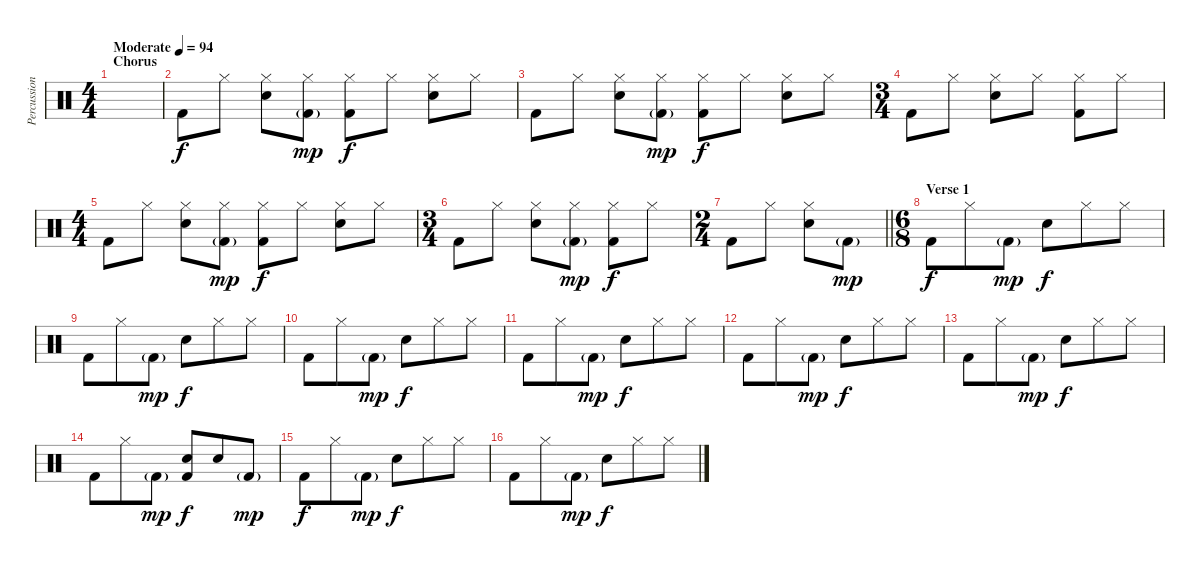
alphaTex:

\track ("Percussion" "Percussion") {instrument percussion}
\staff {score}
\articulation defaults
\ts (4 4)
\section ("" "Chorus")
\tempo (94 "Moderate")
\clef neutral
\ks c
|
"Kick (hit) 2".8 "Hi-Hat (closed)".8 ("Hi-Hat (closed)" "Snare (hit) 2").8 ("Hi-Hat (closed)" "Kick (hit) 2"{g}).8{dy mp} ("Hi-Hat (closed)" "Kick (hit) 2").8{dy f} "Hi-Hat (closed)".8 ("Hi-Hat (closed)" "Snare (hit) 2").8 "Hi-Hat (closed)".8 |
"Kick (hit) 2".8 "Hi-Hat (closed)".8 ("Hi-Hat (closed)" "Snare (hit) 2").8 ("Hi-Hat (closed)" "Kick (hit) 2"{g}).8{dy mp} ("Hi-Hat (closed)" "Kick (hit) 2").8{dy f} "Hi-Hat (closed)".8 ("Hi-Hat (closed)" "Snare (hit) 2").8 "Hi-Hat (closed)".8 |
\ts (3 4)
"Kick (hit) 2".8 "Hi-Hat (closed)".8 ("Hi-Hat (closed)" "Snare (hit) 2").8 "Hi-Hat (closed)".8 ("Hi-Hat (closed)" "Kick (hit) 2").8 "Hi-Hat (closed)".8 |
\ts (4 4)
"Kick (hit) 2".8 "Hi-Hat (closed)".8 ("Hi-Hat (closed)" "Snare (hit) 2").8 ("Hi-Hat (closed)" "Kick (hit) 2"{g}).8{dy mp} ("Hi-Hat (closed)" "Kick (hit) 2").8{dy f} "Hi-Hat (closed)".8 ("Hi-Hat (closed)" "Snare (hit) 2").8 "Hi-Hat (closed)".8 |
\ts (3 4)
"Kick (hit) 2".8 "Hi-Hat (closed)".8 ("Hi-Hat (closed)" "Snare (hit) 2").8 ("Hi-Hat (closed)" "Kick (hit) 2"{g}).8{dy mp} ("Hi-Hat (closed)" "Kick (hit) 2").8{dy f} "Hi-Hat (closed)".8 |
\ts (2 4)
\barLineRight lightlight "Kick (hit) 2".8 "Hi-Hat (closed)".8
("Hi-Hat (closed)" "Snare (hit) 2").8 "Kick (hit) 2"{g}.8{dy mp} |
\ts (6 8)
\section ("" "Verse 1")
"Kick (hit) 2".8{dy f} "Hi-Hat (closed)".8 "Kick (hit) 2"{g}.8{dy mp} "Snare (hit) 2".8{dy f} "Hi-Hat (closed)".8 "Hi-Hat (closed)".8 |
"Kick (hit) 2".8 "Hi-Hat (closed)".8 "Kick (hit) 2"{g}.8{dy mp} "Snare (hit) 2".8{dy f} "Hi-Hat (closed)".8 "Hi-Hat (closed)".8 |
"Kick (hit) 2".8 "Hi-Hat (closed)".8 "Kick (hit) 2"{g}.8{dy mp} "Snare (hit) 2".8{dy f} "Hi-Hat (closed)".8 "Hi-Hat (closed)".8 |
"Kick (hit) 2".8 "Hi-Hat (closed)".8 "Kick (hit) 2"{g}.8{dy mp} "Snare (hit) 2".8{dy f} "Hi-Hat (closed)".8 "Hi-Hat (closed)".8 |
"Kick (hit) 2".8 "Hi-Hat (closed)".8 "Kick (hit) 2"{g}.8{dy mp} "Snare (hit) 2".8{dy f} "Hi-Hat (closed)".8 "Hi-Hat (closed)".8 |
"Kick (hit) 2".8 "Hi-Hat (closed)".8 "Kick (hit) 2"{g}.8{dy mp} "Snare (hit) 2".8{dy f} "Hi-Hat (closed)".8 "Hi-Hat (closed)".8 |
"Kick (hit) 2".8 "Hi-Hat (closed)".8 "Kick (hit) 2"{g}.8{dy mp} ("Snare (hit) 2" "Kick (hit) 2").8{dy f} "Snare (hit) 2".8 "Kick (hit) 2"{g}.8{dy mp} |
"Kick (hit) 2".8{dy f} "Hi-Hat (closed)".8 "Kick (hit) 2"{g}.8{dy mp} "Snare (hit) 2".8{dy f} "Hi-Hat (closed)".8 "Hi-Hat (closed)".8 |
"Kick (hit) 2".8 "Hi-Hat (closed)".8 "Kick (hit) 2"{g}.8{dy mp} "Snare (hit) 2".8{dy f} "Hi-Hat (closed)".8 "Hi-Hat (closed)".8
